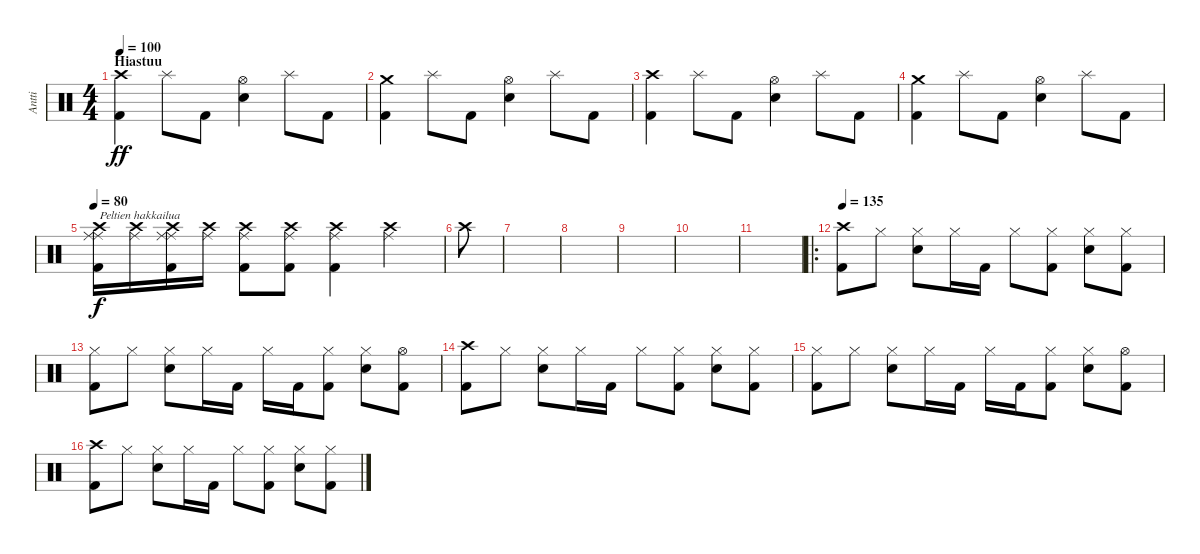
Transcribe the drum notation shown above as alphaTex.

\track ("Antti" "Antti") {instrument percussion}
\staff {score}
\articulation defaults
\ts (4 4)
\section ("" "Hiastuu")
\tempo 100
\clef neutral
\ks c
("Crash high (hit)" "Kick (hit) 2").4{dy ff} "Splash (hit)".8 "Kick (hit) 2".8 ("Hi-Hat (open)" "Snare (hit) 2").4 "Splash (hit)".8 "Kick (hit) 2".8 |
("Crash medium (hit)" "Kick (hit) 2").4 "Splash (hit)".8 "Kick (hit) 2".8 ("Hi-Hat (open)" "Snare (hit) 2").4 "Splash (hit)".8 "Kick (hit) 2".8 |
("Crash high (hit)" "Kick (hit) 2").4 "Splash (hit)".8 "Kick (hit) 2".8 ("Hi-Hat (open)" "Snare (hit) 2").4 "Splash (hit)".8 "Kick (hit) 2".8 |
("Crash medium (hit)" "Kick (hit) 2").4 "Splash (hit)".8 "Kick (hit) 2".8 ("Hi-Hat (open)" "Snare (hit) 2").4 "Splash (hit)".8 "Kick (hit) 2".8 |
\tempo 80
("Crash high (hit)" "Ride (middle)" "Ride (middle)" "Kick (hit) 2").16{txt "Peltien hakkailua" dy f} ("Crash high (hit)" "Ride (middle)").16 ("Crash high (hit)" "Ride (middle)" "Ride (middle)" "Kick (hit) 2").16 ("Crash high (hit)" "Ride (middle)").16 ("Crash high (hit)" "Ride (middle)" "Kick (hit) 2").8 ("Crash high (hit)" "Ride (middle)" "Kick (hit) 2").8 ("Crash high (hit)" "Ride (middle)" "Kick (hit) 2").4 ("Crash high (hit)" "Ride (middle)").4 |
"Crash high (hit)".8 |
|
|
|
|
|
\ro
\tempo 135
("Crash high (hit)" "Kick (hit) 2").8 "Hi-Hat (closed)".8 ("Hi-Hat (closed)" "Snare (hit) 2").8 "Hi-Hat (closed)".16 "Kick (hit) 2".16 "Hi-Hat (closed)".8 ("Hi-Hat (closed)" "Kick (hit) 2").8 ("Hi-Hat (closed)" "Snare (hit) 2").8 ("Hi-Hat (closed)" "Kick (hit) 2").8 |
("Hi-Hat (closed)" "Kick (hit) 2").8 "Hi-Hat (closed)".8 ("Hi-Hat (closed)" "Snare (hit) 2").8 "Hi-Hat (closed)".16 "Kick (hit) 2".16 "Hi-Hat (closed)".16 "Kick (hit) 2".16 ("Hi-Hat (closed)" "Kick (hit) 2").8 ("Hi-Hat (closed)" "Snare (hit) 2").8 ("Hi-Hat (open)" "Kick (hit) 2").8 |
("Crash high (hit)" "Kick (hit) 2").8 "Hi-Hat (closed)".8 ("Hi-Hat (closed)" "Snare (hit) 2").8 "Hi-Hat (closed)".16 "Kick (hit) 2".16 "Hi-Hat (closed)".8 ("Hi-Hat (closed)" "Kick (hit) 2").8 ("Hi-Hat (closed)" "Snare (hit) 2").8 ("Hi-Hat (closed)" "Kick (hit) 2").8 |
("Hi-Hat (closed)" "Kick (hit) 2").8 "Hi-Hat (closed)".8 ("Hi-Hat (closed)" "Snare (hit) 2").8 "Hi-Hat (closed)".16 "Kick (hit) 2".16 "Hi-Hat (closed)".16 "Kick (hit) 2".16 ("Hi-Hat (closed)" "Kick (hit) 2").8 ("Hi-Hat (closed)" "Snare (hit) 2").8 ("Hi-Hat (open)" "Kick (hit) 2").8 |
("Crash high (hit)" "Kick (hit) 2").8 "Hi-Hat (closed)".8 ("Hi-Hat (closed)" "Snare (hit) 2").8 "Hi-Hat (closed)".16 "Kick (hit) 2".16 "Hi-Hat (closed)".8 ("Hi-Hat (closed)" "Kick (hit) 2").8 ("Hi-Hat (closed)" "Snare (hit) 2").8 ("Hi-Hat (closed)" "Kick (hit) 2").8
